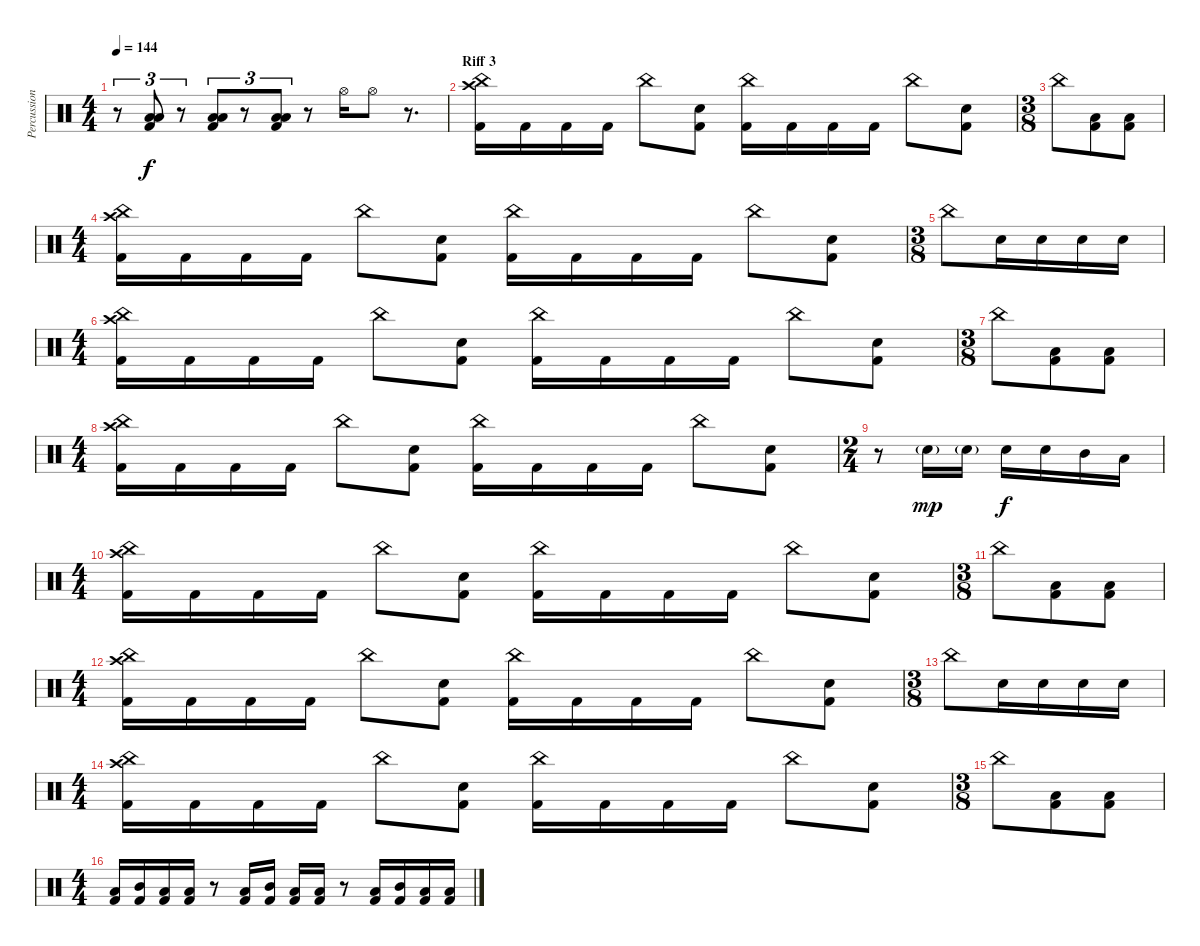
\track ("Percussion" "Percussion") {instrument percussion}
\staff {score}
\articulation defaults
\ts (4 4)
\tempo 144
\clef neutral
\ks c
r.8{tu (3 2) dy f} ("Low Tom (hit)" "Low Floor Tom (hit)" "Kick (hit) 2").8{tu (3 2)} r.8{tu (3 2)} ("Low Tom (hit)" "Low Floor Tom (hit)" "Kick (hit) 2").8{tu (3 2)} r.8{tu (3 2)} ("Low Tom (hit)" "Low Floor Tom (hit)" "Kick (hit) 2").8{tu (3 2)} r.8 "Hi-Hat (open)".16 "Hi-Hat (open)".8 r.8{d} |
\section ("" "Riff 3")
("China (hit)" "Crash high (hit)" "Kick (hit) 2").16 "Kick (hit) 2".16 "Kick (hit) 2".16 "Kick (hit) 2".16 "China (hit)".8 ("Electric Snare (hit)" "Kick (hit) 2").8 ("China (hit)" "Kick (hit) 2").16 "Kick (hit) 2".16 "Kick (hit) 2".16 "Kick (hit) 2".16 "China (hit)".8 ("Electric Snare (hit)" "Kick (hit) 2").8 |
\ts (3 8)
"China (hit)".8 ("Low Floor Tom (hit)" "Kick (hit) 2").8 ("Low Floor Tom (hit)" "Kick (hit) 2").8 |
\ts (4 4)
("China (hit)" "Crash high (hit)" "Kick (hit) 2").16 "Kick (hit) 2".16 "Kick (hit) 2".16 "Kick (hit) 2".16 "China (hit)".8 ("Electric Snare (hit)" "Kick (hit) 2").8 ("China (hit)" "Kick (hit) 2").16 "Kick (hit) 2".16 "Kick (hit) 2".16 "Kick (hit) 2".16 "China (hit)".8 ("Electric Snare (hit)" "Kick (hit) 2").8 |
\ts (3 8)
"China (hit)".8 "Electric Snare (hit)".16 "Electric Snare (hit)".16 "Electric Snare (hit)".16 "Electric Snare (hit)".16 |
\ts (4 4)
("China (hit)" "Crash high (hit)" "Kick (hit) 2").16 "Kick (hit) 2".16 "Kick (hit) 2".16 "Kick (hit) 2".16 "China (hit)".8 ("Electric Snare (hit)" "Kick (hit) 2").8 ("China (hit)" "Kick (hit) 2").16 "Kick (hit) 2".16 "Kick (hit) 2".16 "Kick (hit) 2".16 "China (hit)".8 ("Electric Snare (hit)" "Kick (hit) 2").8 |
\ts (3 8)
"China (hit)".8 ("Low Floor Tom (hit)" "Kick (hit) 2").8 ("Low Floor Tom (hit)" "Kick (hit) 2").8 |
\ts (4 4)
("China (hit)" "Crash high (hit)" "Kick (hit) 2").16 "Kick (hit) 2".16 "Kick (hit) 2".16 "Kick (hit) 2".16 "China (hit)".8 ("Electric Snare (hit)" "Kick (hit) 2").8 ("China (hit)" "Kick (hit) 2").16 "Kick (hit) 2".16 "Kick (hit) 2".16 "Kick (hit) 2".16 "China (hit)".8 ("Electric Snare (hit)" "Kick (hit) 2").8 |
\ts (2 4)
r.8 "Electric Snare (hit)"{g}.16{dy mp} "Electric Snare (hit)"{g}.16 "Electric Snare (hit)".16{dy f} "Electric Snare (hit)".16 "Mid Tom (hit)".16 "Low Tom (hit)".16 |
\ts (4 4)
("China (hit)" "Crash high (hit)" "Kick (hit) 2").16 "Kick (hit) 2".16 "Kick (hit) 2".16 "Kick (hit) 2".16 "China (hit)".8 ("Electric Snare (hit)" "Kick (hit) 2").8 ("China (hit)" "Kick (hit) 2").16 "Kick (hit) 2".16 "Kick (hit) 2".16 "Kick (hit) 2".16 "China (hit)".8 ("Electric Snare (hit)" "Kick (hit) 2").8 |
\ts (3 8)
"China (hit)".8 ("Low Floor Tom (hit)" "Kick (hit) 2").8 ("Low Floor Tom (hit)" "Kick (hit) 2").8 |
\ts (4 4)
("China (hit)" "Crash high (hit)" "Kick (hit) 2").16 "Kick (hit) 2".16 "Kick (hit) 2".16 "Kick (hit) 2".16 "China (hit)".8 ("Electric Snare (hit)" "Kick (hit) 2").8 ("China (hit)" "Kick (hit) 2").16 "Kick (hit) 2".16 "Kick (hit) 2".16 "Kick (hit) 2".16 "China (hit)".8 ("Electric Snare (hit)" "Kick (hit) 2").8 |
\ts (3 8)
"China (hit)".8 "Electric Snare (hit)".16 "Electric Snare (hit)".16 "Electric Snare (hit)".16 "Electric Snare (hit)".16 |
\ts (4 4)
("China (hit)" "Crash high (hit)" "Kick (hit) 2").16 "Kick (hit) 2".16 "Kick (hit) 2".16 "Kick (hit) 2".16 "China (hit)".8 ("Electric Snare (hit)" "Kick (hit) 2").8 ("China (hit)" "Kick (hit) 2").16 "Kick (hit) 2".16 "Kick (hit) 2".16 "Kick (hit) 2".16 "China (hit)".8 ("Electric Snare (hit)" "Kick (hit) 2").8 |
\ts (3 8)
"China (hit)".8 ("Low Floor Tom (hit)" "Kick (hit) 2").8 ("Low Floor Tom (hit)" "Kick (hit) 2").8 |
\ts (4 4)
("Low Tom (hit)" "Kick (hit) 2").16 ("Mid Tom (hit)" "Kick (hit) 2").16 ("Low Tom (hit)" "Kick (hit) 2").16 ("Low Floor Tom (hit)" "Kick (hit) 2").16 r.8 ("Low Tom (hit)" "Kick (hit) 2").16 ("Mid Tom (hit)" "Kick (hit) 2").16 ("Low Tom (hit)" "Kick (hit) 2").16 ("Low Floor Tom (hit)" "Kick (hit) 2").16 r.8 ("Low Tom (hit)" "Kick (hit) 2").16 ("Mid Tom (hit)" "Kick (hit) 2").16 ("Low Tom (hit)" "Kick (hit) 2").16 ("Low Floor Tom (hit)" "Kick (hit) 2").16
